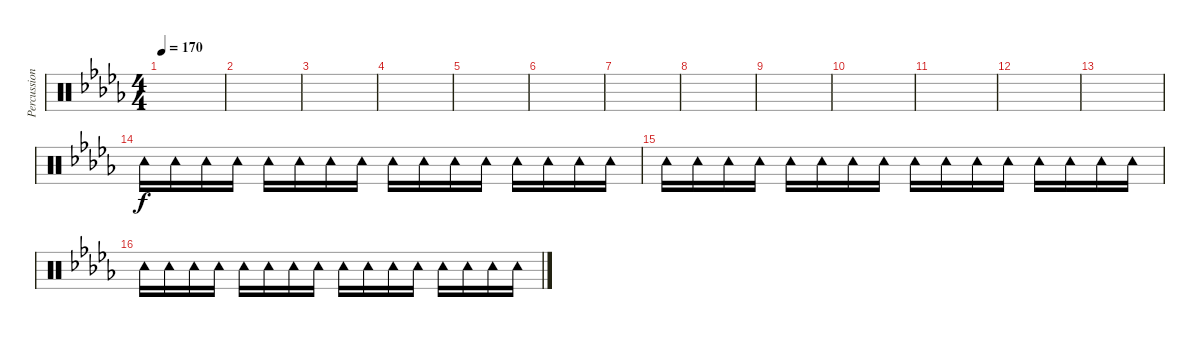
\track ("Percussion" "Percussion") {instrument percussion}
\staff {score}
\articulation defaults
\ts (4 4)
\tempo 170
\clef neutral
\ks db
|
|
|
|
|
|
|
|
|
|
|
|
|
"Tambourine (hit)".16 "Tambourine (hit)".16 "Tambourine (hit)".16 "Tambourine (hit)".16 "Tambourine (hit)".16 "Tambourine (hit)".16 "Tambourine (hit)".16 "Tambourine (hit)".16 "Tambourine (hit)".16 "Tambourine (hit)".16 "Tambourine (hit)".16 "Tambourine (hit)".16 "Tambourine (hit)".16 "Tambourine (hit)".16 "Tambourine (hit)".16 "Tambourine (hit)".16 |
"Tambourine (hit)".16 "Tambourine (hit)".16 "Tambourine (hit)".16 "Tambourine (hit)".16 "Tambourine (hit)".16 "Tambourine (hit)".16 "Tambourine (hit)".16 "Tambourine (hit)".16 "Tambourine (hit)".16 "Tambourine (hit)".16 "Tambourine (hit)".16 "Tambourine (hit)".16 "Tambourine (hit)".16 "Tambourine (hit)".16 "Tambourine (hit)".16 "Tambourine (hit)".16 |
"Tambourine (hit)".16 "Tambourine (hit)".16 "Tambourine (hit)".16 "Tambourine (hit)".16 "Tambourine (hit)".16 "Tambourine (hit)".16 "Tambourine (hit)".16 "Tambourine (hit)".16 "Tambourine (hit)".16 "Tambourine (hit)".16 "Tambourine (hit)".16 "Tambourine (hit)".16 "Tambourine (hit)".16 "Tambourine (hit)".16 "Tambourine (hit)".16 "Tambourine (hit)".16
